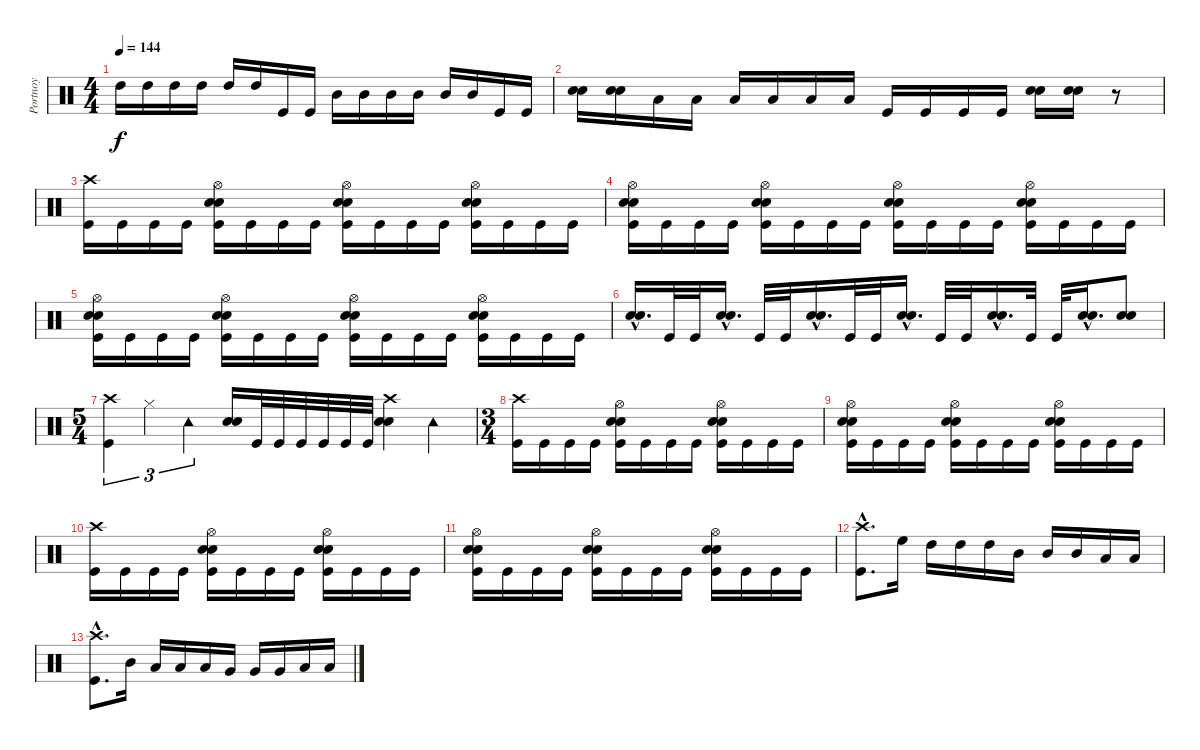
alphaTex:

\track ("Portnoy" "Portnoy") {instrument percussion}
\staff {score}
\articulation defaults
\ts (4 4)
\tempo 144
\clef neutral
\ks c "High Tom (hit)".16{dy f} "High Tom (hit)".16 "High Tom (hit)".16 "High Tom (hit)".16 "High Tom (hit)".16 "High Tom (hit)".16 "Kick (hit)".16 "Kick (hit)".16 "Mid Tom (hit)".16 "Mid Tom (hit)".16 "Mid Tom (hit)".16 "Mid Tom (hit)".16 "Mid Tom (hit)".16 "Mid Tom (hit)".16 "Kick (hit)".16 "Kick (hit)".16
|
("Snare (hit) 2" "Electric Snare (hit)").16 ("Snare (hit) 2" "Electric Snare (hit)").16 "Low Tom (hit)".16 "Low Tom (hit)".16 "Low Tom (hit)".16 "Low Tom (hit)".16 "Low Tom (hit)".16 "Low Tom (hit)".16 "Kick (hit)".16 "Kick (hit)".16 "Kick (hit)".16 "Kick (hit)".16 ("Snare (hit) 2" "Electric Snare (hit)").16 ("Snare (hit) 2" "Electric Snare (hit)").16 r.8 |
("Crash high (hit)" "Kick (hit)").16 "Kick (hit)".16 "Kick (hit)".16 "Kick (hit)".16 ("Hi-Hat (open)" "Snare (hit) 2" "Electric Snare (hit)" "Kick (hit)").16 "Kick (hit)".16 "Kick (hit)".16 "Kick (hit)".16 ("Hi-Hat (open)" "Snare (hit) 2" "Electric Snare (hit)" "Kick (hit)").16 "Kick (hit)".16 "Kick (hit)".16 "Kick (hit)".16 ("Hi-Hat (open)" "Snare (hit) 2" "Electric Snare (hit)" "Kick (hit)").16 "Kick (hit)".16 "Kick (hit)".16 "Kick (hit)".16 |
("Hi-Hat (open)" "Snare (hit) 2" "Electric Snare (hit)" "Kick (hit)").16 "Kick (hit)".16 "Kick (hit)".16 "Kick (hit)".16 ("Hi-Hat (open)" "Snare (hit) 2" "Electric Snare (hit)" "Kick (hit)").16 "Kick (hit)".16 "Kick (hit)".16 "Kick (hit)".16 ("Hi-Hat (open)" "Snare (hit) 2" "Electric Snare (hit)" "Kick (hit)").16 "Kick (hit)".16 "Kick (hit)".16 "Kick (hit)".16 ("Hi-Hat (open)" "Snare (hit) 2" "Electric Snare (hit)" "Kick (hit)").16 "Kick (hit)".16 "Kick (hit)".16 "Kick (hit)".16 |
("Hi-Hat (open)" "Snare (hit) 2" "Electric Snare (hit)" "Kick (hit)").16 "Kick (hit)".16 "Kick (hit)".16 "Kick (hit)".16 ("Hi-Hat (open)" "Snare (hit) 2" "Electric Snare (hit)" "Kick (hit)").16 "Kick (hit)".16 "Kick (hit)".16 "Kick (hit)".16 ("Hi-Hat (open)" "Snare (hit) 2" "Electric Snare (hit)" "Kick (hit)").16 "Kick (hit)".16 "Kick (hit)".16 "Kick (hit)".16 ("Hi-Hat (open)" "Snare (hit) 2" "Electric Snare (hit)" "Kick (hit)").16 "Kick (hit)".16 "Kick (hit)".16 "Kick (hit)".16 |
("Snare (hit) 2"{hac} "Electric Snare (hit)"{hac}).16{d} "Kick (hit)".32 "Kick (hit)".32 ("Snare (hit) 2"{hac} "Electric Snare (hit)"{hac}).16{d} "Kick (hit)".32 "Kick (hit)".32 ("Snare (hit) 2"{hac} "Electric Snare (hit)"{hac}).16{d} "Kick (hit)".32 "Kick (hit)".32 ("Snare (hit) 2"{hac} "Electric Snare (hit)"{hac}).16{d} "Kick (hit)".32 "Kick (hit)".32 ("Snare (hit) 2"{hac} "Electric Snare (hit)"{hac}).16{d} "Kick (hit)".32 "Kick (hit)".32 ("Snare (hit) 2"{hac} "Electric Snare (hit)"{hac}).16{d} ("Snare (hit) 2" "Electric Snare (hit)").8 |
\ts (5 4)
("Crash high (hit)" "Kick (hit)").4{tu (3 2)} "Hi-Hat (closed)".4{tu (3 2)} "Tambourine (hit)".4{tu (3 2)} ("Snare (hit) 2" "Electric Snare (hit)").16 "Kick (hit)".32 "Kick (hit)".32 "Kick (hit)".32 "Kick (hit)".32 "Kick (hit)".32 "Kick (hit)".32 ("Crash high (hit)" "Snare (hit) 2" "Electric Snare (hit)").4 "Tambourine (hit)".4 |
\ts (3 4)
("Crash high (hit)" "Kick (hit)").16 "Kick (hit)".16 "Kick (hit)".16 "Kick (hit)".16 ("Hi-Hat (open)" "Snare (hit) 2" "Electric Snare (hit)" "Kick (hit)").16 "Kick (hit)".16 "Kick (hit)".16 "Kick (hit)".16 ("Hi-Hat (open)" "Snare (hit) 2" "Electric Snare (hit)" "Kick (hit)").16 "Kick (hit)".16 "Kick (hit)".16 "Kick (hit)".16 |
("Hi-Hat (open)" "Snare (hit) 2" "Electric Snare (hit)" "Kick (hit)").16 "Kick (hit)".16 "Kick (hit)".16 "Kick (hit)".16 ("Hi-Hat (open)" "Snare (hit) 2" "Electric Snare (hit)" "Kick (hit)").16 "Kick (hit)".16 "Kick (hit)".16 "Kick (hit)".16 ("Hi-Hat (open)" "Snare (hit) 2" "Electric Snare (hit)" "Kick (hit)").16 "Kick (hit)".16 "Kick (hit)".16 "Kick (hit)".16 |
("Crash high (hit)" "Kick (hit)").16 "Kick (hit)".16 "Kick (hit)".16 "Kick (hit)".16 ("Hi-Hat (open)" "Snare (hit) 2" "Electric Snare (hit)" "Kick (hit)").16 "Kick (hit)".16 "Kick (hit)".16 "Kick (hit)".16 ("Hi-Hat (open)" "Snare (hit) 2" "Electric Snare (hit)" "Kick (hit)").16 "Kick (hit)".16 "Kick (hit)".16 "Kick (hit)".16 |
("Hi-Hat (open)" "Snare (hit) 2" "Electric Snare (hit)" "Kick (hit)").16 "Kick (hit)".16 "Kick (hit)".16 "Kick (hit)".16 ("Hi-Hat (open)" "Snare (hit) 2" "Electric Snare (hit)" "Kick (hit)").16 "Kick (hit)".16 "Kick (hit)".16 "Kick (hit)".16 ("Hi-Hat (open)" "Snare (hit) 2" "Electric Snare (hit)" "Kick (hit)").16 "Kick (hit)".16 "Kick (hit)".16 "Kick (hit)".16 |
("Crash high (hit)"{hac} "Kick (hit)"{hac}).8{d} "High Floor Tom (hit)".16 "High Tom (hit)".16 "High Tom (hit)".16 "High Tom (hit)".16 "Mid Tom (hit)".16 "Mid Tom (hit)".16 "Mid Tom (hit)".16 "Low Tom (hit)".16 "Low Tom (hit)".16 |
("Crash high (hit)"{hac} "Kick (hit)"{hac}).8{d} "Mid Tom (hit)".16 "Low Tom (hit)".16 "Low Tom (hit)".16 "Low Tom (hit)".16 "Very Low Tom (hit)".16 "Very Low Tom (hit)".16 "Very Low Tom (hit)".16 "Low Floor Tom (hit)".16 "Low Floor Tom (hit)".16
